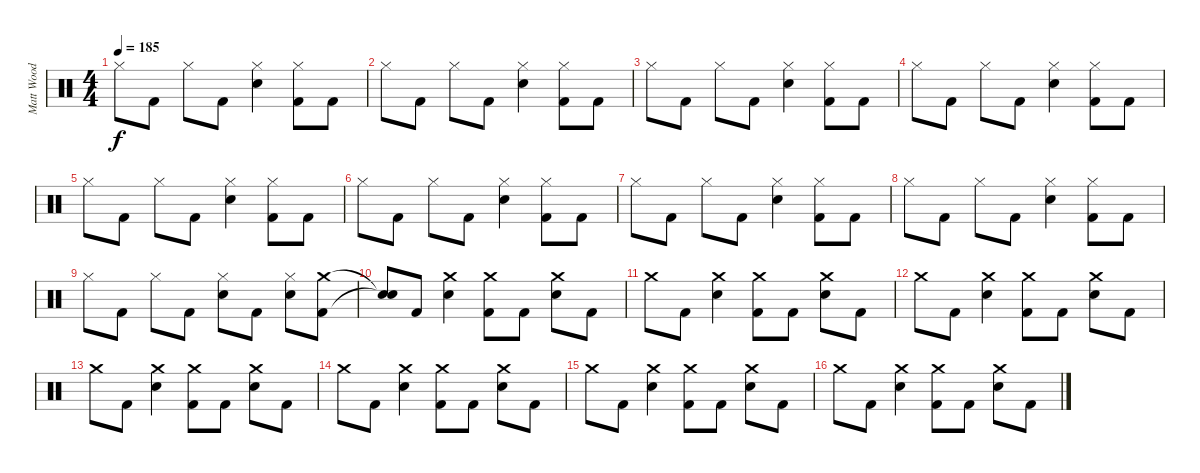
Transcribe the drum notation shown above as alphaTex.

\track ("Matt Wood" "Matt Wood") {instrument percussion}
\staff {score}
\articulation defaults
\ts (4 4)
\tempo 185
\clef neutral
\ks c "Hi-Hat (closed)".8{dy f} "Kick (hit) 2".8 "Hi-Hat (closed)".8 "Kick (hit) 2".8
("Hi-Hat (closed)" "Snare (hit) 2").4 ("Hi-Hat (closed)" "Kick (hit) 2").8 "Kick (hit) 2".8 |
"Hi-Hat (closed)".8 "Kick (hit) 2".8 "Hi-Hat (closed)".8 "Kick (hit) 2".8 ("Hi-Hat (closed)" "Snare (hit) 2").4 ("Hi-Hat (closed)" "Kick (hit) 2").8 "Kick (hit) 2".8 |
"Hi-Hat (closed)".8 "Kick (hit) 2".8 "Hi-Hat (closed)".8 "Kick (hit) 2".8 ("Hi-Hat (closed)" "Snare (hit) 2").4 ("Hi-Hat (closed)" "Kick (hit) 2").8 "Kick (hit) 2".8 |
"Hi-Hat (closed)".8 "Kick (hit) 2".8 "Hi-Hat (closed)".8 "Kick (hit) 2".8 ("Hi-Hat (closed)" "Snare (hit) 2").4 ("Hi-Hat (closed)" "Kick (hit) 2").8 "Kick (hit) 2".8 |
"Hi-Hat (closed)".8 "Kick (hit) 2".8 "Hi-Hat (closed)".8 "Kick (hit) 2".8 ("Hi-Hat (closed)" "Snare (hit) 2").4 ("Hi-Hat (closed)" "Kick (hit) 2").8 "Kick (hit) 2".8 |
"Hi-Hat (closed)".8 "Kick (hit) 2".8 "Hi-Hat (closed)".8 "Kick (hit) 2".8 ("Hi-Hat (closed)" "Snare (hit) 2").4 ("Hi-Hat (closed)" "Kick (hit) 2").8 "Kick (hit) 2".8 |
"Hi-Hat (closed)".8 "Kick (hit) 2".8 "Hi-Hat (closed)".8 "Kick (hit) 2".8 ("Hi-Hat (closed)" "Snare (hit) 2").4 ("Hi-Hat (closed)" "Kick (hit) 2").8 "Kick (hit) 2".8 |
"Hi-Hat (closed)".8 "Kick (hit) 2".8 "Hi-Hat (closed)".8 "Kick (hit) 2".8 ("Hi-Hat (closed)" "Snare (hit) 2").4 ("Hi-Hat (closed)" "Kick (hit) 2").8 "Kick (hit) 2".8 |
"Hi-Hat (closed)".8 "Kick (hit) 2".8 "Hi-Hat (closed)".8 "Kick (hit) 2".8 ("Hi-Hat (closed)" "Snare (hit) 2").8 "Kick (hit) 2".8 ("Hi-Hat (closed)" "Snare (hit) 2").8 ("Crash medium (hit)" "Kick (hit) 2").8 |
("Snare (hit)"{t} "Snare (hit)"{t}).8 "Kick (hit) 2".8 ("Crash medium (hit)" "Snare (hit) 2").4 ("Crash medium (hit)" "Kick (hit) 2").8 "Kick (hit) 2".8 ("Crash medium (hit)" "Snare (hit) 2").8 "Kick (hit) 2".8 |
"Crash medium (hit)".8 "Kick (hit) 2".8 ("Crash medium (hit)" "Snare (hit) 2").4 ("Crash medium (hit)" "Kick (hit) 2").8 "Kick (hit) 2".8 ("Crash medium (hit)" "Snare (hit) 2").8 "Kick (hit) 2".8 |
"Crash medium (hit)".8 "Kick (hit) 2".8 ("Crash medium (hit)" "Snare (hit) 2").4 ("Crash medium (hit)" "Kick (hit) 2").8 "Kick (hit) 2".8 ("Crash medium (hit)" "Snare (hit) 2").8 "Kick (hit) 2".8 |
"Crash medium (hit)".8 "Kick (hit) 2".8 ("Crash medium (hit)" "Snare (hit) 2").4 ("Crash medium (hit)" "Kick (hit) 2").8 "Kick (hit) 2".8 ("Crash medium (hit)" "Snare (hit) 2").8 "Kick (hit) 2".8 |
"Crash medium (hit)".8 "Kick (hit) 2".8 ("Crash medium (hit)" "Snare (hit) 2").4 ("Crash medium (hit)" "Kick (hit) 2").8 "Kick (hit) 2".8 ("Crash medium (hit)" "Snare (hit) 2").8 "Kick (hit) 2".8 |
"Crash medium (hit)".8 "Kick (hit) 2".8 ("Crash medium (hit)" "Snare (hit) 2").4 ("Crash medium (hit)" "Kick (hit) 2").8 "Kick (hit) 2".8 ("Crash medium (hit)" "Snare (hit) 2").8 "Kick (hit) 2".8 |
"Crash medium (hit)".8 "Kick (hit) 2".8 ("Crash medium (hit)" "Snare (hit) 2").4 ("Crash medium (hit)" "Kick (hit) 2").8 "Kick (hit) 2".8 ("Crash medium (hit)" "Snare (hit) 2").8 "Kick (hit) 2".8
